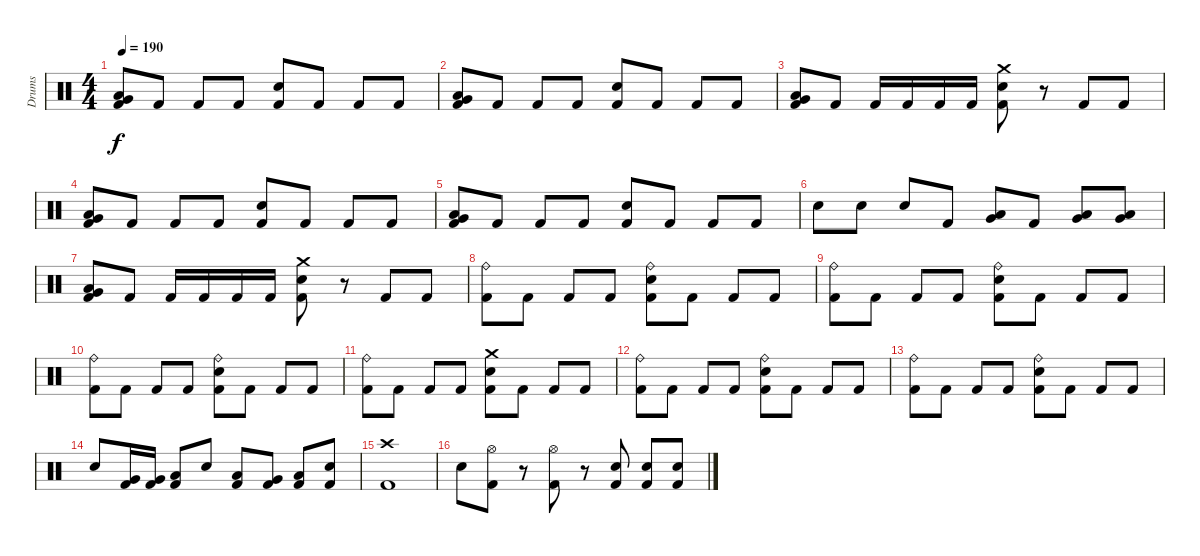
\track ("Drums" "Drums") {instrument percussion}
\staff {score}
\articulation defaults
\ts (4 4)
\tempo 190
\clef neutral
\ks c
("Low Floor Tom (hit)" "Very Low Tom (hit)" "Kick (hit) 2").8{dy f} "Kick (hit) 2".8 "Kick (hit) 2".8 "Kick (hit) 2".8 ("Snare (hit) 2" "Kick (hit) 2").8 "Kick (hit) 2".8 "Kick (hit) 2".8 "Kick (hit) 2".8 |
("Low Floor Tom (hit)" "Very Low Tom (hit)" "Kick (hit) 2").8 "Kick (hit) 2".8 "Kick (hit) 2".8 "Kick (hit) 2".8 ("Snare (hit) 2" "Kick (hit) 2").8 "Kick (hit) 2".8 "Kick (hit) 2".8 "Kick (hit) 2".8 |
("Low Floor Tom (hit)" "Very Low Tom (hit)" "Kick (hit) 2").8 "Kick (hit) 2".8 "Kick (hit) 2".16 "Kick (hit) 2".16 "Kick (hit) 2".16 "Kick (hit) 2".16 ("Crash medium (hit)" "Snare (hit) 2" "Kick (hit) 2").8 r.8 "Kick (hit) 2".8 "Kick (hit) 2".8 |
("Low Floor Tom (hit)" "Very Low Tom (hit)" "Kick (hit) 2").8 "Kick (hit) 2".8 "Kick (hit) 2".8 "Kick (hit) 2".8 ("Snare (hit) 2" "Kick (hit) 2").8 "Kick (hit) 2".8 "Kick (hit) 2".8 "Kick (hit) 2".8 |
("Low Floor Tom (hit)" "Very Low Tom (hit)" "Kick (hit) 2").8 "Kick (hit) 2".8 "Kick (hit) 2".8 "Kick (hit) 2".8 ("Snare (hit) 2" "Kick (hit) 2").8 "Kick (hit) 2".8 "Kick (hit) 2".8 "Kick (hit) 2".8 |
"Snare (hit) 2".8 "Snare (hit) 2".8 "Snare (hit) 2".8 "Kick (hit) 2".8 ("Very Low Tom (hit)" "Low Tom (hit)").8 "Kick (hit) 2".8 ("Low Floor Tom (hit)" "Very Low Tom (hit)").8 ("Low Floor Tom (hit)" "Very Low Tom (hit)").8 |
("Low Floor Tom (hit)" "Very Low Tom (hit)" "Kick (hit) 2").8 "Kick (hit) 2".8 "Kick (hit) 2".16 "Kick (hit) 2".16 "Kick (hit) 2".16 "Kick (hit) 2".16 ("Crash medium (hit)" "Snare (hit) 2" "Kick (hit) 2").8 r.8 "Kick (hit) 2".8 "Kick (hit) 2".8 |
("Ride (bell)" "Kick (hit) 2").8 "Kick (hit) 2".8 "Kick (hit) 2".8 "Kick (hit) 2".8 ("Ride (bell)" "Snare (hit) 2" "Kick (hit) 2").8 "Kick (hit) 2".8 "Kick (hit) 2".8 "Kick (hit) 2".8 |
("Ride (bell)" "Kick (hit) 2").8 "Kick (hit) 2".8 "Kick (hit) 2".8 "Kick (hit) 2".8 ("Ride (bell)" "Snare (hit) 2" "Kick (hit) 2").8 "Kick (hit) 2".8 "Kick (hit) 2".8 "Kick (hit) 2".8 |
("Ride (bell)" "Kick (hit) 2").8 "Kick (hit) 2".8 "Kick (hit) 2".8 "Kick (hit) 2".8 ("Ride (bell)" "Snare (hit) 2" "Kick (hit) 2").8 "Kick (hit) 2".8 "Kick (hit) 2".8 "Kick (hit) 2".8 |
("Ride (bell)" "Kick (hit) 2").8 "Kick (hit) 2".8 "Kick (hit) 2".8 "Kick (hit) 2".8 ("Crash medium (hit)" "Snare (hit) 2" "Kick (hit) 2").8 "Kick (hit) 2".8 "Kick (hit) 2".8 "Kick (hit) 2".8 |
("Ride (bell)" "Kick (hit) 2").8 "Kick (hit) 2".8 "Kick (hit) 2".8 "Kick (hit) 2".8 ("Ride (bell)" "Snare (hit) 2" "Kick (hit) 2").8 "Kick (hit) 2".8 "Kick (hit) 2".8 "Kick (hit) 2".8 |
("Ride (bell)" "Kick (hit) 2").8 "Kick (hit) 2".8 "Kick (hit) 2".8 "Kick (hit) 2".8 ("Ride (bell)" "Snare (hit) 2" "Kick (hit) 2").8 "Kick (hit) 2".8 "Kick (hit) 2".8 "Kick (hit) 2".8 |
"Snare (hit) 2".8 ("Very Low Tom (hit)" "Kick (hit) 2").16 ("Very Low Tom (hit)" "Kick (hit) 2").16 ("Low Floor Tom (hit)" "Kick (hit) 2").8 "Snare (hit) 2".8 ("Low Tom (hit)" "Kick (hit) 2").8 ("Very Low Tom (hit)" "Kick (hit) 2").8 ("Low Floor Tom (hit)" "Kick (hit) 2").8 ("Snare (hit) 2" "Kick (hit) 2").8 |
("Crash high (hit)" "Kick (hit) 2").1 |
"Snare (hit) 2".8 ("Hi-Hat (open)" "Kick (hit) 2").8 r.8 ("Hi-Hat (open)" "Kick (hit) 2").8 r.8 ("Snare (hit) 2" "Kick (hit) 2").8 ("Snare (hit) 2" "Kick (hit) 2").8 ("Snare (hit) 2" "Kick (hit) 2").8
